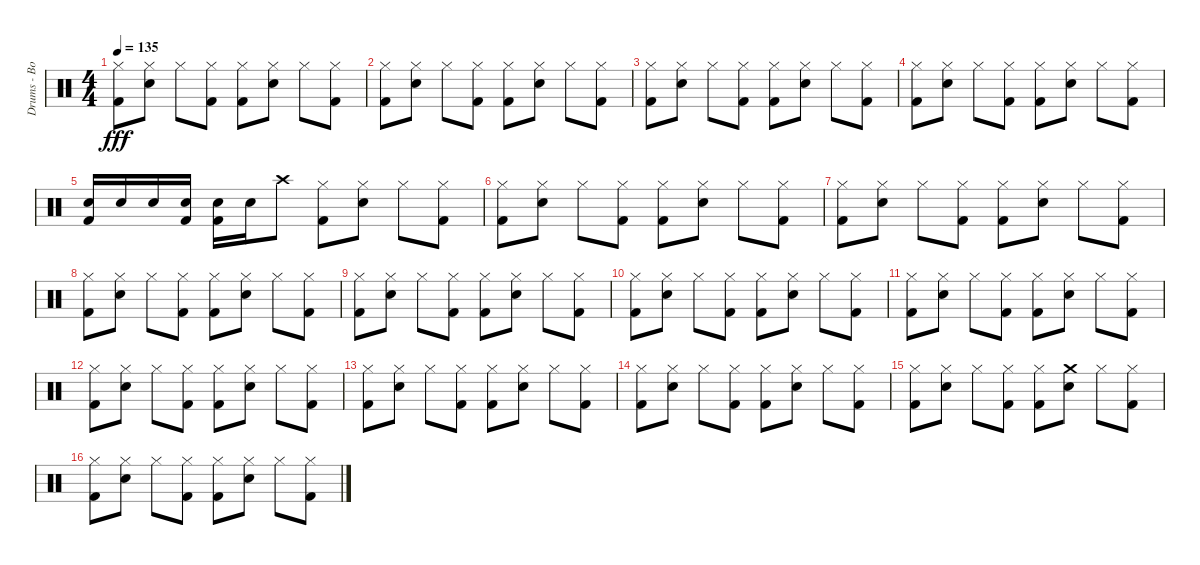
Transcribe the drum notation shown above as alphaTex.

\track ("Drums - Bobby Schayer" "Drums - Bo") {instrument percussion}
\staff {score}
\articulation defaults
\ts (4 4)
\tempo 135
\clef neutral
\ks c
("Hi-Hat (closed)" "Kick (hit) 2").8{dy fff} ("Hi-Hat (closed)" "Electric Snare (hit)").8 "Hi-Hat (closed)".8 ("Hi-Hat (closed)" "Kick (hit) 2").8 ("Hi-Hat (closed)" "Kick (hit) 2").8 ("Hi-Hat (closed)" "Electric Snare (hit)").8 "Hi-Hat (closed)".8 ("Hi-Hat (closed)" "Kick (hit) 2").8 |
("Hi-Hat (closed)" "Kick (hit) 2").8 ("Hi-Hat (closed)" "Electric Snare (hit)").8 "Hi-Hat (closed)".8 ("Hi-Hat (closed)" "Kick (hit) 2").8 ("Hi-Hat (closed)" "Kick (hit) 2").8 ("Hi-Hat (closed)" "Electric Snare (hit)").8 "Hi-Hat (closed)".8 ("Hi-Hat (closed)" "Kick (hit) 2").8 |
("Hi-Hat (closed)" "Kick (hit) 2").8 ("Hi-Hat (closed)" "Electric Snare (hit)").8 "Hi-Hat (closed)".8 ("Hi-Hat (closed)" "Kick (hit) 2").8 ("Hi-Hat (closed)" "Kick (hit) 2").8 ("Hi-Hat (closed)" "Electric Snare (hit)").8 "Hi-Hat (closed)".8 ("Hi-Hat (closed)" "Kick (hit) 2").8 |
("Hi-Hat (closed)" "Kick (hit) 2").8 ("Hi-Hat (closed)" "Electric Snare (hit)").8 "Hi-Hat (closed)".8 ("Hi-Hat (closed)" "Kick (hit) 2").8 ("Hi-Hat (closed)" "Kick (hit) 2").8 ("Hi-Hat (closed)" "Electric Snare (hit)").8 "Hi-Hat (closed)".8 ("Hi-Hat (closed)" "Kick (hit) 2").8 |
("Electric Snare (hit)" "Kick (hit) 2").16 "Electric Snare (hit)".16 "Electric Snare (hit)".16 ("Electric Snare (hit)" "Kick (hit) 2").16 ("Electric Snare (hit)" "Kick (hit) 2").16 "Electric Snare (hit)".16 "Crash high (hit)".8 ("Hi-Hat (closed)" "Kick (hit) 2").8 ("Hi-Hat (closed)" "Electric Snare (hit)").8 "Hi-Hat (closed)".8 ("Hi-Hat (closed)" "Kick (hit) 2").8 |
("Hi-Hat (closed)" "Kick (hit) 2").8 ("Hi-Hat (closed)" "Electric Snare (hit)").8 "Hi-Hat (closed)".8 ("Hi-Hat (closed)" "Kick (hit) 2").8 ("Hi-Hat (closed)" "Kick (hit) 2").8 ("Hi-Hat (closed)" "Electric Snare (hit)").8 "Hi-Hat (closed)".8 ("Hi-Hat (closed)" "Kick (hit) 2").8 |
("Hi-Hat (closed)" "Kick (hit) 2").8 ("Hi-Hat (closed)" "Electric Snare (hit)").8 "Hi-Hat (closed)".8 ("Hi-Hat (closed)" "Kick (hit) 2").8 ("Hi-Hat (closed)" "Kick (hit) 2").8 ("Hi-Hat (closed)" "Electric Snare (hit)").8 "Hi-Hat (closed)".8 ("Hi-Hat (closed)" "Kick (hit) 2").8 |
("Hi-Hat (closed)" "Kick (hit) 2").8 ("Hi-Hat (closed)" "Electric Snare (hit)").8 "Hi-Hat (closed)".8 ("Hi-Hat (closed)" "Kick (hit) 2").8 ("Hi-Hat (closed)" "Kick (hit) 2").8 ("Hi-Hat (closed)" "Electric Snare (hit)").8 "Hi-Hat (closed)".8 ("Hi-Hat (closed)" "Kick (hit) 2").8 |
("Hi-Hat (closed)" "Kick (hit) 2").8 ("Hi-Hat (closed)" "Electric Snare (hit)").8 "Hi-Hat (closed)".8 ("Hi-Hat (closed)" "Kick (hit) 2").8 ("Hi-Hat (closed)" "Kick (hit) 2").8 ("Hi-Hat (closed)" "Electric Snare (hit)").8 "Hi-Hat (closed)".8 ("Hi-Hat (closed)" "Kick (hit) 2").8 |
("Hi-Hat (closed)" "Kick (hit) 2").8 ("Hi-Hat (closed)" "Electric Snare (hit)").8 "Hi-Hat (closed)".8 ("Hi-Hat (closed)" "Kick (hit) 2").8 ("Hi-Hat (closed)" "Kick (hit) 2").8 ("Hi-Hat (closed)" "Electric Snare (hit)").8 "Hi-Hat (closed)".8 ("Hi-Hat (closed)" "Kick (hit) 2").8 |
("Hi-Hat (closed)" "Kick (hit) 2").8 ("Hi-Hat (closed)" "Electric Snare (hit)").8 "Hi-Hat (closed)".8 ("Hi-Hat (closed)" "Kick (hit) 2").8 ("Hi-Hat (closed)" "Kick (hit) 2").8 ("Hi-Hat (closed)" "Electric Snare (hit)").8 "Hi-Hat (closed)".8 ("Hi-Hat (closed)" "Kick (hit) 2").8 |
("Hi-Hat (closed)" "Kick (hit) 2").8 ("Hi-Hat (closed)" "Electric Snare (hit)").8 "Hi-Hat (closed)".8 ("Hi-Hat (closed)" "Kick (hit) 2").8 ("Hi-Hat (closed)" "Kick (hit) 2").8 ("Hi-Hat (closed)" "Electric Snare (hit)").8 "Hi-Hat (closed)".8 ("Hi-Hat (closed)" "Kick (hit) 2").8 |
("Hi-Hat (closed)" "Kick (hit) 2").8 ("Hi-Hat (closed)" "Electric Snare (hit)").8 "Hi-Hat (closed)".8 ("Hi-Hat (closed)" "Kick (hit) 2").8 ("Hi-Hat (closed)" "Kick (hit) 2").8 ("Hi-Hat (closed)" "Electric Snare (hit)").8 "Hi-Hat (closed)".8 ("Hi-Hat (closed)" "Kick (hit) 2").8 |
("Hi-Hat (closed)" "Kick (hit) 2").8 ("Hi-Hat (closed)" "Electric Snare (hit)").8 "Hi-Hat (closed)".8 ("Hi-Hat (closed)" "Kick (hit) 2").8 ("Hi-Hat (closed)" "Kick (hit) 2").8 ("Hi-Hat (closed)" "Electric Snare (hit)").8 "Hi-Hat (closed)".8 ("Hi-Hat (closed)" "Kick (hit) 2").8 |
("Hi-Hat (closed)" "Kick (hit) 2").8 ("Hi-Hat (closed)" "Electric Snare (hit)").8 "Hi-Hat (closed)".8 ("Hi-Hat (closed)" "Kick (hit) 2").8 ("Hi-Hat (closed)" "Kick (hit) 2").8 ("Crash medium (hit)" "Electric Snare (hit)").8 "Hi-Hat (closed)".8 ("Hi-Hat (closed)" "Kick (hit) 2").8 |
("Hi-Hat (closed)" "Kick (hit) 2").8 ("Hi-Hat (closed)" "Electric Snare (hit)").8 "Hi-Hat (closed)".8 ("Hi-Hat (closed)" "Kick (hit) 2").8 ("Hi-Hat (closed)" "Kick (hit) 2").8 ("Hi-Hat (closed)" "Electric Snare (hit)").8 "Hi-Hat (closed)".8 ("Hi-Hat (closed)" "Kick (hit) 2").8
